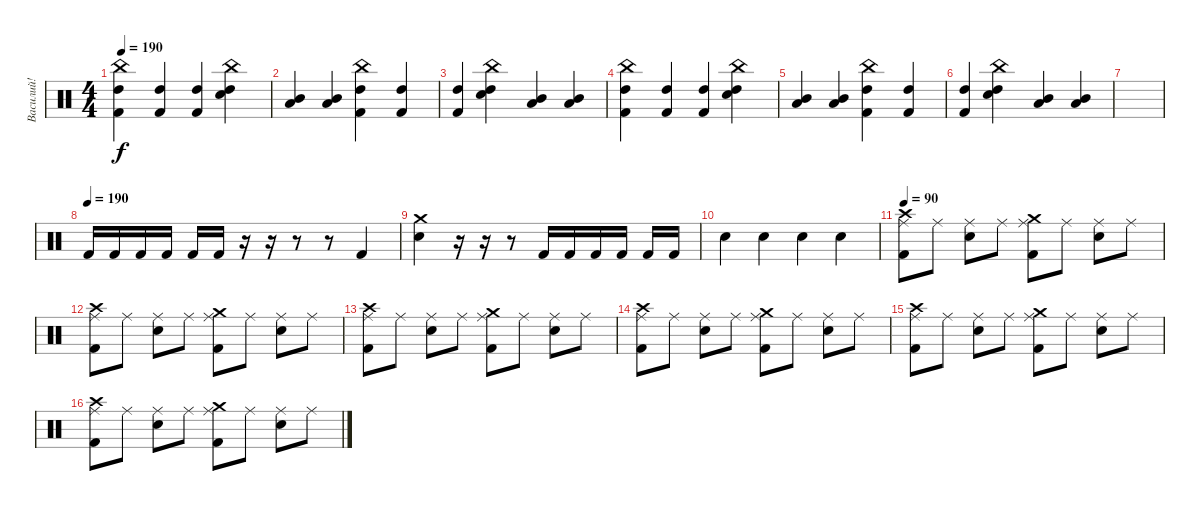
\track ("Василий!" "Василий!") {instrument percussion}
\staff {score}
\articulation defaults
\ts (4 4)
\tempo 190
\clef neutral
\ks c
("Kick (hit) 2" "High Tom (hit)" "China (hit)").4{dy f} ("Kick (hit) 2" "High Tom (hit)").4 ("Kick (hit) 2" "High Tom (hit)").4 ("Electric Snare (hit)" "High Tom (hit)" "China (hit)").4 |
("Low Tom (hit)" "Mid Tom (hit)").4 ("Mid Tom (hit)" "Low Tom (hit)").4 ("Kick (hit) 2" "High Tom (hit)" "China (hit)").4 ("Kick (hit) 2" "High Tom (hit)").4 |
("Kick (hit) 2" "High Tom (hit)").4 ("Electric Snare (hit)" "High Tom (hit)" "China (hit)").4 ("Low Tom (hit)" "Mid Tom (hit)").4 ("Mid Tom (hit)" "Low Tom (hit)").4 |
("Kick (hit) 2" "High Tom (hit)" "China (hit)").4 ("Kick (hit) 2" "High Tom (hit)").4 ("Kick (hit) 2" "High Tom (hit)").4 ("Electric Snare (hit)" "High Tom (hit)" "China (hit)").4 |
("Low Tom (hit)" "Mid Tom (hit)").4 ("Mid Tom (hit)" "Low Tom (hit)").4 ("Kick (hit) 2" "High Tom (hit)" "China (hit)").4 ("Kick (hit) 2" "High Tom (hit)").4 |
("Kick (hit) 2" "High Tom (hit)").4 ("Electric Snare (hit)" "High Tom (hit)" "China (hit)").4 ("Low Tom (hit)" "Mid Tom (hit)").4 ("Mid Tom (hit)" "Low Tom (hit)").4 |
|
\tempo (190)
"Kick (hit) 2".16 "Kick (hit) 2".16 "Kick (hit) 2".16 "Kick (hit) 2".16 "Kick (hit) 2".16 "Kick (hit) 2".16 r.16 r.16 r.8 r.8 "Kick (hit) 2".4 |
("Electric Snare (hit)" "Crash medium (hit)").4 r.16 r.16 r.8 "Kick (hit) 2".16 "Kick (hit) 2".16 "Kick (hit) 2".16 "Kick (hit) 2".16 "Kick (hit) 2".16 "Kick (hit) 2".16 |
"Electric Snare (hit)".4 "Electric Snare (hit)".4 "Electric Snare (hit)".4 "Electric Snare (hit)".4 |
\tempo 90
("Ride (middle)" "Kick (hit) 2" "Crash high (hit)").8 "Ride (middle)".8 ("Ride (middle)" "Electric Snare (hit)").8 "Ride (middle)".8 ("Ride (middle)" "Kick (hit) 2" "Crash medium (hit)").8 "Ride (middle)".8 ("Ride (middle)" "Electric Snare (hit)").8 "Ride (middle)".8 |
("Ride (middle)" "Kick (hit) 2" "Crash high (hit)").8 "Ride (middle)".8 ("Ride (middle)" "Electric Snare (hit)").8 "Ride (middle)".8 ("Ride (middle)" "Kick (hit) 2" "Crash medium (hit)").8 "Ride (middle)".8 ("Ride (middle)" "Electric Snare (hit)").8 "Ride (middle)".8 |
("Ride (middle)" "Kick (hit) 2" "Crash high (hit)").8 "Ride (middle)".8 ("Ride (middle)" "Electric Snare (hit)").8 "Ride (middle)".8 ("Ride (middle)" "Kick (hit) 2" "Crash medium (hit)").8 "Ride (middle)".8 ("Ride (middle)" "Electric Snare (hit)").8 "Ride (middle)".8 |
("Ride (middle)" "Kick (hit) 2" "Crash high (hit)").8 "Ride (middle)".8 ("Ride (middle)" "Electric Snare (hit)").8 "Ride (middle)".8 ("Ride (middle)" "Kick (hit) 2" "Crash medium (hit)").8 "Ride (middle)".8 ("Ride (middle)" "Electric Snare (hit)").8 "Ride (middle)".8 |
("Ride (middle)" "Kick (hit) 2" "Crash high (hit)").8 "Ride (middle)".8 ("Ride (middle)" "Electric Snare (hit)").8 "Ride (middle)".8 ("Ride (middle)" "Kick (hit) 2" "Crash medium (hit)").8 "Ride (middle)".8 ("Ride (middle)" "Electric Snare (hit)").8 "Ride (middle)".8 |
("Ride (middle)" "Kick (hit) 2" "Crash high (hit)").8 "Ride (middle)".8 ("Ride (middle)" "Electric Snare (hit)").8 "Ride (middle)".8 ("Ride (middle)" "Kick (hit) 2" "Crash medium (hit)").8 "Ride (middle)".8 ("Ride (middle)" "Electric Snare (hit)").8 "Ride (middle)".8
